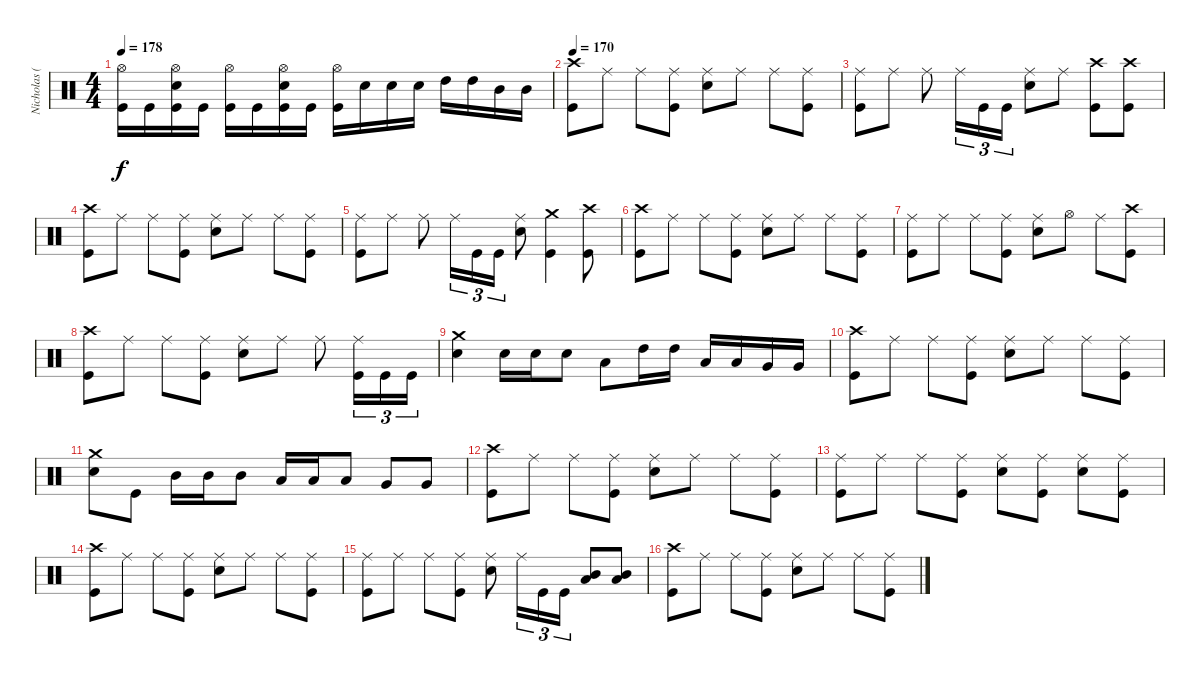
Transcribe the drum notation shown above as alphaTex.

\track ("Nicholas (Drums)" "Nicholas (") {instrument percussion}
\staff {score}
\articulation defaults
\ts (4 4)
\tempo 178
\clef neutral
\ks c
("Hi-Hat (open)" "Kick (hit)").16{dy f} "Kick (hit)".16 ("Hi-Hat (open)" "Electric Snare (hit)" "Kick (hit)").16 "Kick (hit)".16 ("Hi-Hat (open)" "Kick (hit)").16 "Kick (hit)".16 ("Hi-Hat (open)" "Electric Snare (hit)" "Kick (hit)").16 "Kick (hit)".16 ("Hi-Hat (open)" "Kick (hit)").16 "Electric Snare (hit)".16 "Electric Snare (hit)".16 "Electric Snare (hit)".16 "High Tom (hit)".16 "High Tom (hit)".16 "Mid Tom (hit)".16 "Mid Tom (hit)".16 |
\tempo 170
("Crash high (hit)" "Kick (hit)").8 "Ride (middle)".8 "Ride (middle)".8 ("Ride (middle)" "Kick (hit)").8 ("Ride (middle)" "Electric Snare (hit)").8 "Ride (middle)".8 "Ride (middle)".8 ("Ride (middle)" "Kick (hit)").8 |
("Ride (middle)" "Kick (hit)").8 "Ride (middle)".8 "Ride (middle)".8 "Ride (middle)".16{tu (3 2)} "Kick (hit)".16{tu (3 2)} "Kick (hit)".16{tu (3 2)} ("Ride (middle)" "Electric Snare (hit)").8 "Ride (middle)".8 ("Crash high (hit)" "Kick (hit)").8 ("Crash high (hit)" "Kick (hit)").8 |
("Crash high (hit)" "Kick (hit)").8 "Ride (middle)".8 "Ride (middle)".8 ("Ride (middle)" "Kick (hit)").8 ("Ride (middle)" "Electric Snare (hit)").8 "Ride (middle)".8 "Ride (middle)".8 ("Ride (middle)" "Kick (hit)").8 |
("Ride (middle)" "Kick (hit)").8 "Ride (middle)".8 "Ride (middle)".8 "Ride (middle)".16{tu (3 2)} "Kick (hit)".16{tu (3 2)} "Kick (hit)".16{tu (3 2)} ("Ride (middle)" "Electric Snare (hit)").8 ("Crash medium (hit)" "Kick (hit)").4 ("Crash high (hit)" "Kick (hit)").8 |
("Crash high (hit)" "Kick (hit)").8 "Ride (middle)".8 "Ride (middle)".8 ("Ride (middle)" "Kick (hit)").8 ("Ride (middle)" "Electric Snare (hit)").8 "Ride (middle)".8 "Ride (middle)".8 ("Ride (middle)" "Kick (hit)").8 |
("Ride (middle)" "Kick (hit)").8 "Ride (middle)".8 "Ride (middle)".8 ("Ride (middle)" "Kick (hit)").8 ("Ride (middle)" "Electric Snare (hit)").8 "Hi-Hat (open)".8 "Ride (middle)".8 ("Crash high (hit)" "Kick (hit)").8 |
("Crash high (hit)" "Kick (hit)").8 "Ride (middle)".8 "Ride (middle)".8 ("Ride (middle)" "Kick (hit)").8 ("Ride (middle)" "Electric Snare (hit)").8 "Ride (middle)".8 "Ride (middle)".8 ("Ride (middle)" "Kick (hit)").16{tu (3 2)} "Kick (hit)".16{tu (3 2)} "Kick (hit)".16{tu (3 2)} |
("Crash medium (hit)" "Electric Snare (hit)").4 "Electric Snare (hit)".16 "Electric Snare (hit)".16 "Electric Snare (hit)".8 "Low Tom (hit)".8 "High Tom (hit)".16 "High Tom (hit)".16 "Low Tom (hit)".16 "Low Tom (hit)".16 "Very Low Tom (hit)".16 "Very Low Tom (hit)".16 |
("Crash high (hit)" "Kick (hit)").8 "Ride (middle)".8 "Ride (middle)".8 ("Ride (middle)" "Kick (hit)").8 ("Ride (middle)" "Electric Snare (hit)").8 "Ride (middle)".8 "Ride (middle)".8 ("Ride (middle)" "Kick (hit)").8 |
("Crash medium (hit)" "Electric Snare (hit)").8 "Kick (hit)".8 "Mid Tom (hit)".16 "Mid Tom (hit)".16 "Mid Tom (hit)".8 "Low Tom (hit)".16 "Low Tom (hit)".16 "Low Tom (hit)".8 "Very Low Tom (hit)".8 "Very Low Tom (hit)".8 |
("Crash high (hit)" "Kick (hit)").8 "Ride (middle)".8 "Ride (middle)".8 ("Ride (middle)" "Kick (hit)").8 ("Ride (middle)" "Electric Snare (hit)").8 "Ride (middle)".8 "Ride (middle)".8 ("Ride (middle)" "Kick (hit)").8 |
("Ride (middle)" "Kick (hit)").8 "Ride (middle)".8 "Ride (middle)".8 ("Ride (middle)" "Kick (hit)").8 ("Ride (middle)" "Electric Snare (hit)").8 ("Ride (middle)" "Kick (hit)").8 ("Ride (middle)" "Electric Snare (hit)").8 ("Ride (middle)" "Kick (hit)").8 |
("Crash high (hit)" "Kick (hit)").8 "Ride (middle)".8 "Ride (middle)".8 ("Ride (middle)" "Kick (hit)").8 ("Ride (middle)" "Electric Snare (hit)").8 "Ride (middle)".8 "Ride (middle)".8 ("Ride (middle)" "Kick (hit)").8 |
("Ride (middle)" "Kick (hit)").8 "Ride (middle)".8 "Ride (middle)".8 ("Ride (middle)" "Kick (hit)").8 ("Ride (middle)" "Electric Snare (hit)").8 "Ride (middle)".16{tu (3 2)} "Kick (hit)".16{tu (3 2)} "Kick (hit)".16{tu (3 2)} ("Mid Tom (hit)" "Low Tom (hit)").8{bu 60} ("Mid Tom (hit)" "Low Tom (hit)").8{bu 60} |
("Crash high (hit)" "Kick (hit)").8 "Ride (middle)".8 "Ride (middle)".8 ("Ride (middle)" "Kick (hit)").8 ("Ride (middle)" "Electric Snare (hit)").8 "Ride (middle)".8 "Ride (middle)".8 ("Ride (middle)" "Kick (hit)").8
